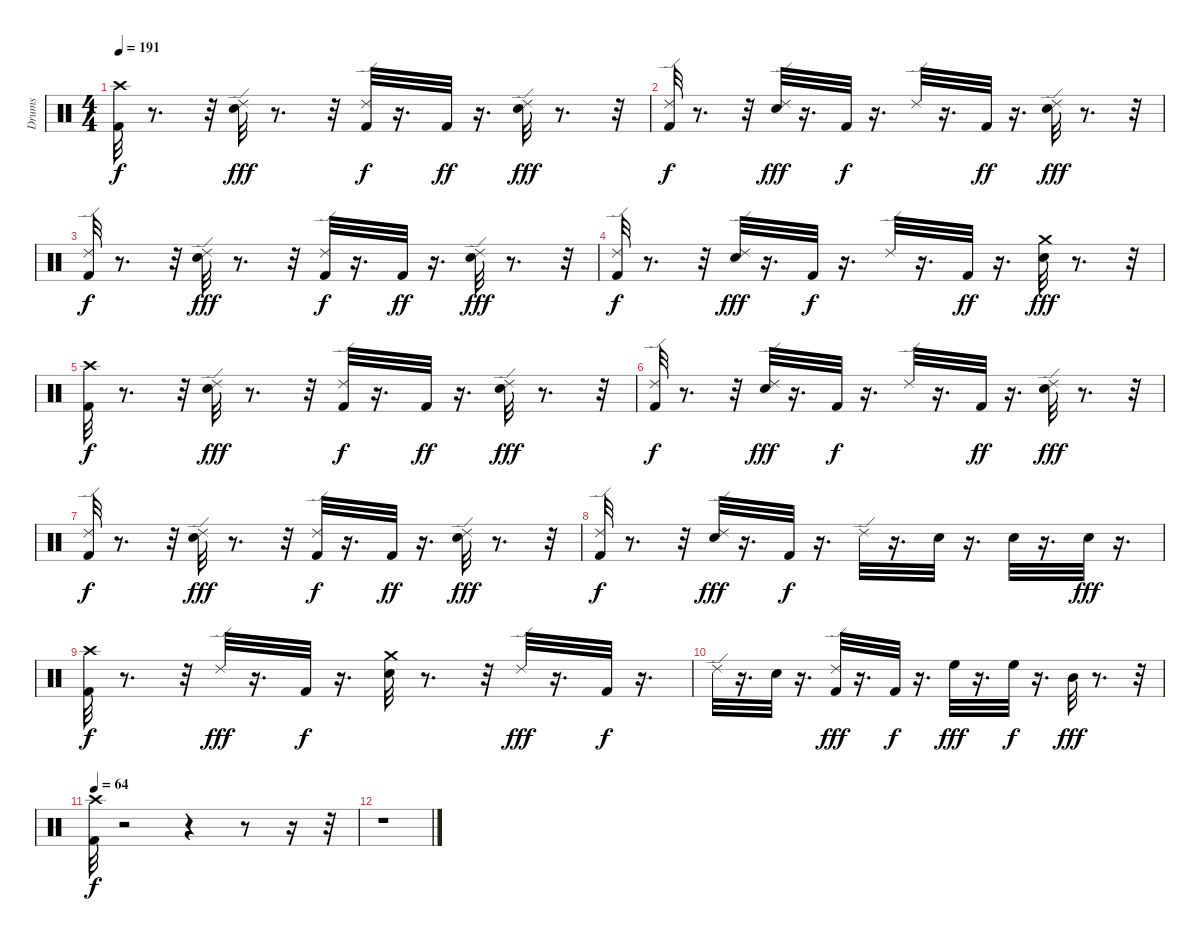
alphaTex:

\track ("Drums" "Drums") {instrument percussion}
\staff {score}
\articulation defaults
\ts (4 4)
\tempo 191
\clef neutral
\ks c
("Crash high (hit)" "Kick (hit) 2").32{dy f} r.8{d} r.32 ("Snare (hit) 2" "Ride (edge) 2").32{dy fff} r.8{d} r.32 ("Kick (hit) 2" "Ride (edge) 2").32{dy f} r.16{d} "Kick (hit) 2".32{dy ff} r.16{d} ("Snare (hit) 2" "Ride (edge) 2").32{dy fff} r.8{d} r.32 |
("Kick (hit) 2" "Ride (edge) 2").32{dy f} r.8{d} r.32 ("Snare (hit) 2" "Ride (edge) 2").32{dy fff} r.16{d} "Kick (hit) 2".32{dy f} r.16{d} "Ride (edge) 2".32 r.16{d} "Kick (hit) 2".32{dy ff} r.16{d} ("Snare (hit) 2" "Ride (edge) 2").32{dy fff} r.8{d} r.32 |
("Kick (hit) 2" "Ride (edge) 2").32{dy f} r.8{d} r.32 ("Snare (hit) 2" "Ride (edge) 2").32{dy fff} r.8{d} r.32 ("Kick (hit) 2" "Ride (edge) 2").32{dy f} r.16{d} "Kick (hit) 2".32{dy ff} r.16{d} ("Snare (hit) 2" "Ride (edge) 2").32{dy fff} r.8{d} r.32 |
("Kick (hit) 2" "Ride (edge) 2").32{dy f} r.8{d} r.32 ("Snare (hit) 2" "Ride (edge) 2").32{dy fff} r.16{d} "Kick (hit) 2".32{dy f} r.16{d} "Ride (edge) 2".32 r.16{d} "Kick (hit) 2".32{dy ff} r.16{d} ("Snare (hit) 2" "Crash medium (hit)").32{dy fff} r.8{d} r.32 |
("Crash high (hit)" "Kick (hit) 2").32{dy f} r.8{d} r.32 ("Snare (hit) 2" "Ride (edge) 2").32{dy fff} r.8{d} r.32 ("Kick (hit) 2" "Ride (edge) 2").32{dy f} r.16{d} "Kick (hit) 2".32{dy ff} r.16{d} ("Snare (hit) 2" "Ride (edge) 2").32{dy fff} r.8{d} r.32 |
("Kick (hit) 2" "Ride (edge) 2").32{dy f} r.8{d} r.32 ("Snare (hit) 2" "Ride (edge) 2").32{dy fff} r.16{d} "Kick (hit) 2".32{dy f} r.16{d} "Ride (edge) 2".32 r.16{d} "Kick (hit) 2".32{dy ff} r.16{d} ("Snare (hit) 2" "Ride (edge) 2").32{dy fff} r.8{d} r.32 |
("Kick (hit) 2" "Ride (edge) 2").32{dy f} r.8{d} r.32 ("Snare (hit) 2" "Ride (edge) 2").32{dy fff} r.8{d} r.32 ("Kick (hit) 2" "Ride (edge) 2").32{dy f} r.16{d} "Kick (hit) 2".32{dy ff} r.16{d} ("Snare (hit) 2" "Ride (edge) 2").32{dy fff} r.8{d} r.32 |
("Kick (hit) 2" "Ride (edge) 2").32{dy f} r.8{d} r.32 ("Snare (hit) 2" "Ride (edge) 2").32{dy fff} r.16{d} "Kick (hit) 2".32{dy f} r.16{d} "Ride (edge) 2".32 r.16{d} "Snare (hit) 2".32 r.16{d} "Snare (hit) 2".32 r.16{d} "Snare (hit) 2".32{dy fff} r.16{d} |
("Kick (hit) 2" "Crash high (hit)").32{dy f} r.8{d} r.32 "Ride (edge) 2".32{dy fff} r.16{d} "Kick (hit) 2".32{dy f} r.16{d} ("Crash medium (hit)" "Snare (hit) 2").32 r.8{d} r.32 "Ride (edge) 2".32{dy fff} r.16{d} "Kick (hit) 2".32{dy f} r.16{d} |
"Ride (edge) 2".32 r.16{d} "Snare (hit) 2".32 r.16{d} ("Kick (hit) 2" "Ride (edge) 2").32{dy fff} r.16{d} "Kick (hit) 2".32{dy f} r.16{d} "High Floor Tom (hit)".32{dy fff} r.16{d} "High Floor Tom (hit)".32{dy f} r.16{d} "Mid Tom (hit)".32{dy fff} r.8{d} r.32 |
\tempo 64
("Kick (hit) 2" "Crash high (hit)").32{dy f} r.2 r.4 r.8 r.16 r.32 |
r.1
